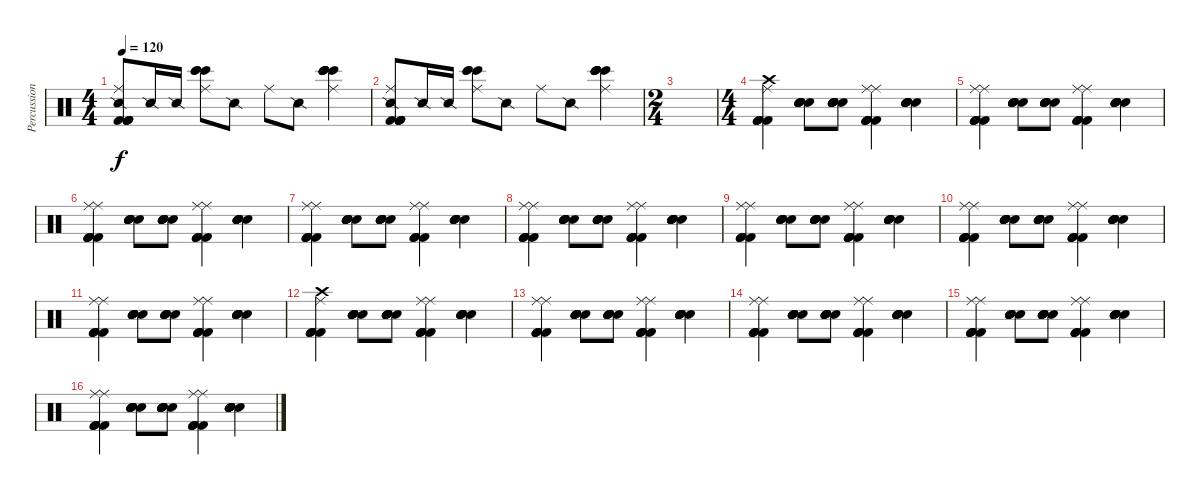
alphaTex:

\track ("Percussion" "Percussion") {instrument percussion}
\staff {score}
\articulation defaults
\ts (4 4)
\tempo 120
\clef neutral
\ks c
("Snare (side stick) 2" "Ride (middle)" "Kick (hit) 2" "Kick (hit) 2" "Kick (hit) 2" "Kick (hit) 2").8{dy f} "Snare (side stick) 2".16 "Snare (side stick) 2".16 ("Bongo High (hit)" "Ride (middle)" "Bongo High (hit)" "Bongo High (hit)").8 "Snare (side stick) 2".8 "Ride (middle)".8 "Snare (side stick) 2".8 ("Bongo High (hit)" "Ride (middle)" "Bongo High (hit)" "Bongo High (hit)" "Bongo High (hit)" "Bongo High (hit)").4 |
("Snare (side stick) 2" "Ride (middle)" "Kick (hit) 2" "Kick (hit) 2" "Kick (hit) 2" "Kick (hit) 2").8 "Snare (side stick) 2".16 "Snare (side stick) 2".16 ("Bongo High (hit)" "Ride (middle)" "Bongo High (hit)" "Bongo High (hit)").8 "Snare (side stick) 2".8 "Ride (middle)".8 "Snare (side stick) 2".8 ("Bongo High (hit)" "Ride (middle)" "Bongo High (hit)" "Bongo High (hit)" "Bongo High (hit)" "Bongo High (hit)").4 |
\ts (2 4)
|
\ts (4 4)
("Crash high (hit)" "Kick (hit) 2" "Kick (hit) 2" "Kick (hit) 2" "Kick (hit) 2" "Ride (middle)").4 ("Electric Snare (hit)" "Electric Snare (hit)" "Electric Snare (hit)" "Electric Snare (hit)" "Electric Snare (hit)" "Electric Snare (hit)").8 ("Electric Snare (hit)" "Electric Snare (hit)" "Electric Snare (hit)" "Electric Snare (hit)" "Electric Snare (hit)" "Electric Snare (hit)").8 ("Ride (middle)" "Kick (hit) 2" "Kick (hit) 2" "Kick (hit) 2" "Kick (hit) 2" "Ride (middle)").4 ("Electric Snare (hit)" "Electric Snare (hit)" "Electric Snare (hit)" "Electric Snare (hit)" "Electric Snare (hit)" "Electric Snare (hit)").4 |
("Ride (middle)" "Kick (hit) 2" "Kick (hit) 2" "Kick (hit) 2" "Kick (hit) 2" "Ride (middle)").4 ("Electric Snare (hit)" "Electric Snare (hit)" "Electric Snare (hit)" "Electric Snare (hit)" "Electric Snare (hit)" "Electric Snare (hit)").8 ("Electric Snare (hit)" "Electric Snare (hit)" "Electric Snare (hit)" "Electric Snare (hit)" "Electric Snare (hit)" "Electric Snare (hit)").8 ("Ride (middle)" "Kick (hit) 2" "Kick (hit) 2" "Kick (hit) 2" "Kick (hit) 2" "Ride (middle)").4 ("Electric Snare (hit)" "Electric Snare (hit)" "Electric Snare (hit)" "Electric Snare (hit)" "Electric Snare (hit)" "Electric Snare (hit)").4 |
("Ride (middle)" "Kick (hit) 2" "Kick (hit) 2" "Kick (hit) 2" "Kick (hit) 2" "Ride (middle)").4 ("Electric Snare (hit)" "Electric Snare (hit)" "Electric Snare (hit)" "Electric Snare (hit)" "Electric Snare (hit)" "Electric Snare (hit)").8 ("Electric Snare (hit)" "Electric Snare (hit)" "Electric Snare (hit)" "Electric Snare (hit)" "Electric Snare (hit)" "Electric Snare (hit)").8 ("Ride (middle)" "Kick (hit) 2" "Kick (hit) 2" "Kick (hit) 2" "Kick (hit) 2" "Ride (middle)").4 ("Electric Snare (hit)" "Electric Snare (hit)" "Electric Snare (hit)" "Electric Snare (hit)" "Electric Snare (hit)" "Electric Snare (hit)").4 |
("Ride (middle)" "Kick (hit) 2" "Kick (hit) 2" "Kick (hit) 2" "Kick (hit) 2" "Ride (middle)").4 ("Electric Snare (hit)" "Electric Snare (hit)" "Electric Snare (hit)" "Electric Snare (hit)" "Electric Snare (hit)" "Electric Snare (hit)").8 ("Electric Snare (hit)" "Electric Snare (hit)" "Electric Snare (hit)" "Electric Snare (hit)" "Electric Snare (hit)" "Electric Snare (hit)").8 ("Ride (middle)" "Kick (hit) 2" "Kick (hit) 2" "Kick (hit) 2" "Kick (hit) 2" "Ride (middle)").4 ("Electric Snare (hit)" "Electric Snare (hit)" "Electric Snare (hit)" "Electric Snare (hit)" "Electric Snare (hit)" "Electric Snare (hit)").4 |
("Ride (middle)" "Kick (hit) 2" "Kick (hit) 2" "Kick (hit) 2" "Kick (hit) 2" "Ride (middle)").4 ("Electric Snare (hit)" "Electric Snare (hit)" "Electric Snare (hit)" "Electric Snare (hit)" "Electric Snare (hit)" "Electric Snare (hit)").8 ("Electric Snare (hit)" "Electric Snare (hit)" "Electric Snare (hit)" "Electric Snare (hit)" "Electric Snare (hit)" "Electric Snare (hit)").8 ("Ride (middle)" "Kick (hit) 2" "Kick (hit) 2" "Kick (hit) 2" "Kick (hit) 2" "Ride (middle)").4 ("Electric Snare (hit)" "Electric Snare (hit)" "Electric Snare (hit)" "Electric Snare (hit)" "Electric Snare (hit)" "Electric Snare (hit)").4 |
("Ride (middle)" "Kick (hit) 2" "Kick (hit) 2" "Kick (hit) 2" "Kick (hit) 2" "Ride (middle)").4 ("Electric Snare (hit)" "Electric Snare (hit)" "Electric Snare (hit)" "Electric Snare (hit)" "Electric Snare (hit)" "Electric Snare (hit)").8 ("Electric Snare (hit)" "Electric Snare (hit)" "Electric Snare (hit)" "Electric Snare (hit)" "Electric Snare (hit)" "Electric Snare (hit)").8 ("Ride (middle)" "Kick (hit) 2" "Kick (hit) 2" "Kick (hit) 2" "Kick (hit) 2" "Ride (middle)").4 ("Electric Snare (hit)" "Electric Snare (hit)" "Electric Snare (hit)" "Electric Snare (hit)" "Electric Snare (hit)" "Electric Snare (hit)").4 |
("Ride (middle)" "Kick (hit) 2" "Kick (hit) 2" "Kick (hit) 2" "Kick (hit) 2" "Ride (middle)").4 ("Electric Snare (hit)" "Electric Snare (hit)" "Electric Snare (hit)" "Electric Snare (hit)" "Electric Snare (hit)" "Electric Snare (hit)").8 ("Electric Snare (hit)" "Electric Snare (hit)" "Electric Snare (hit)" "Electric Snare (hit)" "Electric Snare (hit)" "Electric Snare (hit)").8 ("Ride (middle)" "Kick (hit) 2" "Kick (hit) 2" "Kick (hit) 2" "Kick (hit) 2" "Ride (middle)").4 ("Electric Snare (hit)" "Electric Snare (hit)" "Electric Snare (hit)" "Electric Snare (hit)" "Electric Snare (hit)" "Electric Snare (hit)").4 |
("Ride (middle)" "Kick (hit) 2" "Kick (hit) 2" "Kick (hit) 2" "Kick (hit) 2" "Ride (middle)").4 ("Electric Snare (hit)" "Electric Snare (hit)" "Electric Snare (hit)" "Electric Snare (hit)" "Electric Snare (hit)" "Electric Snare (hit)").8 ("Electric Snare (hit)" "Electric Snare (hit)" "Electric Snare (hit)" "Electric Snare (hit)" "Electric Snare (hit)" "Electric Snare (hit)").8 ("Ride (middle)" "Kick (hit) 2" "Kick (hit) 2" "Kick (hit) 2" "Kick (hit) 2" "Ride (middle)").4 ("Electric Snare (hit)" "Electric Snare (hit)" "Electric Snare (hit)" "Electric Snare (hit)" "Electric Snare (hit)" "Electric Snare (hit)").4 |
("Crash high (hit)" "Kick (hit) 2" "Kick (hit) 2" "Kick (hit) 2" "Kick (hit) 2" "Ride (middle)").4 ("Electric Snare (hit)" "Electric Snare (hit)" "Electric Snare (hit)" "Electric Snare (hit)" "Electric Snare (hit)" "Electric Snare (hit)").8 ("Electric Snare (hit)" "Electric Snare (hit)" "Electric Snare (hit)" "Electric Snare (hit)" "Electric Snare (hit)" "Electric Snare (hit)").8 ("Ride (middle)" "Kick (hit) 2" "Kick (hit) 2" "Kick (hit) 2" "Kick (hit) 2" "Ride (middle)").4 ("Electric Snare (hit)" "Electric Snare (hit)" "Electric Snare (hit)" "Electric Snare (hit)" "Electric Snare (hit)" "Electric Snare (hit)").4 |
("Ride (middle)" "Kick (hit) 2" "Kick (hit) 2" "Kick (hit) 2" "Kick (hit) 2" "Ride (middle)").4 ("Electric Snare (hit)" "Electric Snare (hit)" "Electric Snare (hit)" "Electric Snare (hit)" "Electric Snare (hit)" "Electric Snare (hit)").8 ("Electric Snare (hit)" "Electric Snare (hit)" "Electric Snare (hit)" "Electric Snare (hit)" "Electric Snare (hit)" "Electric Snare (hit)").8 ("Ride (middle)" "Kick (hit) 2" "Kick (hit) 2" "Kick (hit) 2" "Kick (hit) 2" "Ride (middle)").4 ("Electric Snare (hit)" "Electric Snare (hit)" "Electric Snare (hit)" "Electric Snare (hit)" "Electric Snare (hit)" "Electric Snare (hit)").4 |
("Ride (middle)" "Kick (hit) 2" "Kick (hit) 2" "Kick (hit) 2" "Kick (hit) 2" "Ride (middle)").4 ("Electric Snare (hit)" "Electric Snare (hit)" "Electric Snare (hit)" "Electric Snare (hit)" "Electric Snare (hit)" "Electric Snare (hit)").8 ("Electric Snare (hit)" "Electric Snare (hit)" "Electric Snare (hit)" "Electric Snare (hit)" "Electric Snare (hit)" "Electric Snare (hit)").8 ("Ride (middle)" "Kick (hit) 2" "Kick (hit) 2" "Kick (hit) 2" "Kick (hit) 2" "Ride (middle)").4 ("Electric Snare (hit)" "Electric Snare (hit)" "Electric Snare (hit)" "Electric Snare (hit)" "Electric Snare (hit)" "Electric Snare (hit)").4 |
("Ride (middle)" "Kick (hit) 2" "Kick (hit) 2" "Kick (hit) 2" "Kick (hit) 2" "Ride (middle)").4 ("Electric Snare (hit)" "Electric Snare (hit)" "Electric Snare (hit)" "Electric Snare (hit)" "Electric Snare (hit)" "Electric Snare (hit)").8 ("Electric Snare (hit)" "Electric Snare (hit)" "Electric Snare (hit)" "Electric Snare (hit)" "Electric Snare (hit)" "Electric Snare (hit)").8 ("Ride (middle)" "Kick (hit) 2" "Kick (hit) 2" "Kick (hit) 2" "Kick (hit) 2" "Ride (middle)").4 ("Electric Snare (hit)" "Electric Snare (hit)" "Electric Snare (hit)" "Electric Snare (hit)" "Electric Snare (hit)" "Electric Snare (hit)").4 |
("Ride (middle)" "Kick (hit) 2" "Kick (hit) 2" "Kick (hit) 2" "Kick (hit) 2" "Ride (middle)").4 ("Electric Snare (hit)" "Electric Snare (hit)" "Electric Snare (hit)" "Electric Snare (hit)" "Electric Snare (hit)" "Electric Snare (hit)").8 ("Electric Snare (hit)" "Electric Snare (hit)" "Electric Snare (hit)" "Electric Snare (hit)" "Electric Snare (hit)" "Electric Snare (hit)").8 ("Ride (middle)" "Kick (hit) 2" "Kick (hit) 2" "Kick (hit) 2" "Kick (hit) 2" "Ride (middle)").4 ("Electric Snare (hit)" "Electric Snare (hit)" "Electric Snare (hit)" "Electric Snare (hit)" "Electric Snare (hit)" "Electric Snare (hit)").4
